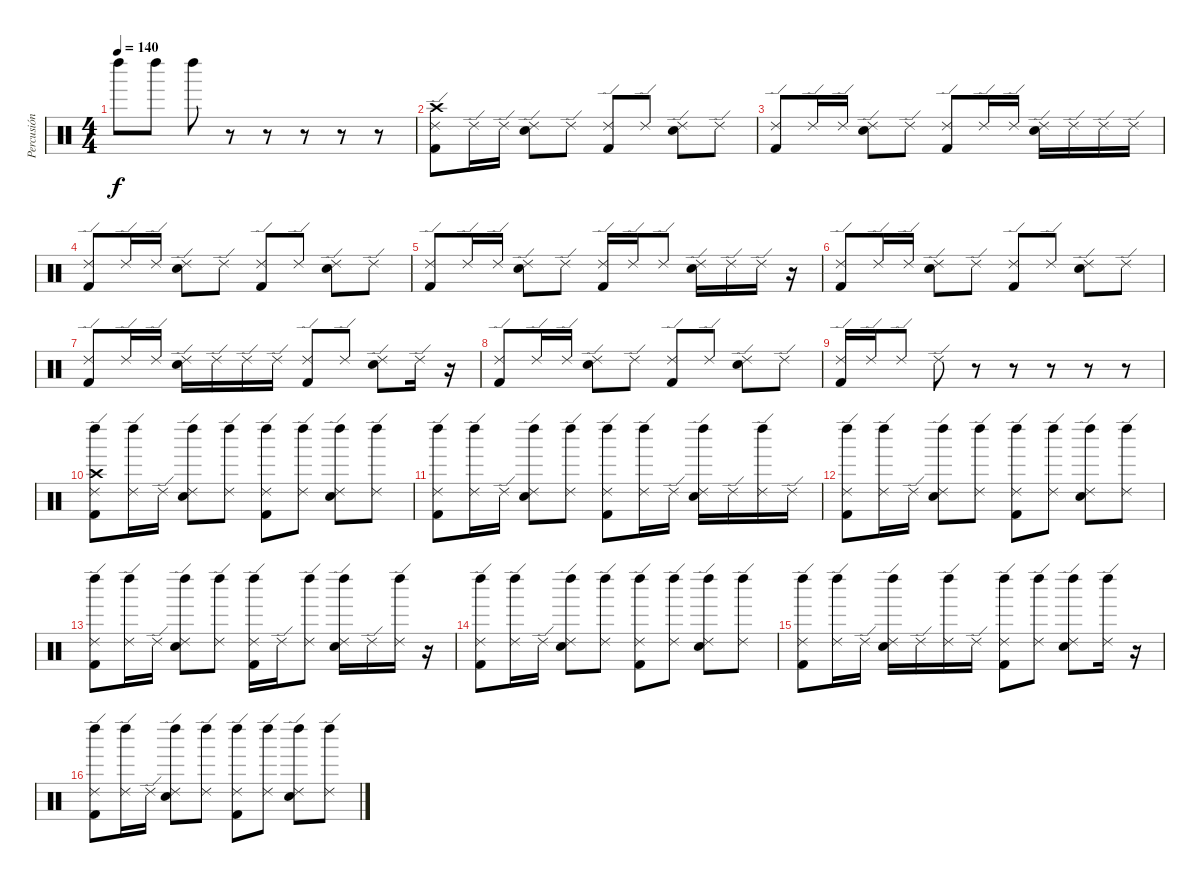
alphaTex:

\track ("Percusión" "Percusión") {instrument percussion}
\staff {score}
\articulation defaults
\ts (4 4)
\tempo 140
\clef neutral
\ks c "Left Maraca (hit)".8{dy f} "Left Maraca (hit)".8 "Left Maraca (hit)".8
r.8 r.8 r.8 r.8 r.8 |
("Ride (edge) 2" "Kick (hit) 2" "Crash high (hit)").8 "Ride (edge) 2".16 "Ride (edge) 2".16 ("Ride (edge) 2" "Snare (hit) 2").8 "Ride (edge) 2".8 ("Ride (edge) 2" "Kick (hit) 2").8 "Ride (edge) 2".8 ("Ride (edge) 2" "Snare (hit) 2").8 "Ride (edge) 2".8 |
("Ride (edge) 2" "Kick (hit) 2").8 "Ride (edge) 2".16 "Ride (edge) 2".16 ("Ride (edge) 2" "Snare (hit) 2").8 "Ride (edge) 2".8 ("Ride (edge) 2" "Kick (hit) 2").8 "Ride (edge) 2".16 "Ride (edge) 2".16 ("Ride (edge) 2" "Snare (hit) 2").16 "Ride (edge) 2".16 "Ride (edge) 2".16 "Ride (edge) 2".16 |
("Ride (edge) 2" "Kick (hit) 2").8 "Ride (edge) 2".16 "Ride (edge) 2".16 ("Ride (edge) 2" "Snare (hit) 2").8 "Ride (edge) 2".8 ("Ride (edge) 2" "Kick (hit) 2").8 "Ride (edge) 2".8 ("Ride (edge) 2" "Snare (hit) 2").8 "Ride (edge) 2".8 |
("Ride (edge) 2" "Kick (hit) 2").8 "Ride (edge) 2".16 "Ride (edge) 2".16 ("Ride (edge) 2" "Snare (hit) 2").8 "Ride (edge) 2".8 ("Ride (edge) 2" "Kick (hit) 2").16 "Ride (edge) 2".16 "Ride (edge) 2".8 ("Ride (edge) 2" "Snare (hit) 2").16 "Ride (edge) 2".16 "Ride (edge) 2".16 r.16 |
("Ride (edge) 2" "Kick (hit) 2").8 "Ride (edge) 2".16 "Ride (edge) 2".16 ("Ride (edge) 2" "Snare (hit) 2").8 "Ride (edge) 2".8 ("Ride (edge) 2" "Kick (hit) 2").8 "Ride (edge) 2".8 ("Ride (edge) 2" "Snare (hit) 2").8 "Ride (edge) 2".8 |
("Ride (edge) 2" "Kick (hit) 2").8 "Ride (edge) 2".16 "Ride (edge) 2".16 ("Ride (edge) 2" "Snare (hit) 2").16 "Ride (edge) 2".16 "Ride (edge) 2".16 "Ride (edge) 2".16 ("Ride (edge) 2" "Kick (hit) 2").8 "Ride (edge) 2".8 ("Ride (edge) 2" "Snare (hit) 2").8 "Ride (edge) 2".16 r.16 |
("Ride (edge) 2" "Kick (hit) 2").8 "Ride (edge) 2".16 "Ride (edge) 2".16 ("Ride (edge) 2" "Snare (hit) 2").8 "Ride (edge) 2".8 ("Ride (edge) 2" "Kick (hit) 2").8 "Ride (edge) 2".8 ("Ride (edge) 2" "Snare (hit) 2").8 "Ride (edge) 2".8 |
("Ride (edge) 2" "Kick (hit) 2").16 "Ride (edge) 2".16 "Ride (edge) 2".8 "Ride (edge) 2".8 r.8 r.8 r.8 r.8 r.8 |
("Ride (edge) 2" "Kick (hit) 2" "Crash high (hit)" "Left Maraca (hit)").8 ("Ride (edge) 2" "Left Maraca (hit)").16 "Ride (edge) 2".16 ("Ride (edge) 2" "Snare (hit) 2" "Left Maraca (hit)").8 ("Ride (edge) 2" "Left Maraca (hit)").8 ("Ride (edge) 2" "Kick (hit) 2" "Left Maraca (hit)").8 ("Ride (edge) 2" "Left Maraca (hit)").8 ("Ride (edge) 2" "Snare (hit) 2" "Left Maraca (hit)").8 ("Ride (edge) 2" "Left Maraca (hit)").8 |
("Ride (edge) 2" "Kick (hit) 2" "Left Maraca (hit)").8 ("Ride (edge) 2" "Left Maraca (hit)").16 "Ride (edge) 2".16 ("Ride (edge) 2" "Snare (hit) 2" "Left Maraca (hit)").8 ("Ride (edge) 2" "Left Maraca (hit)").8 ("Ride (edge) 2" "Kick (hit) 2" "Left Maraca (hit)").8 ("Ride (edge) 2" "Left Maraca (hit)").16 "Ride (edge) 2".16 ("Ride (edge) 2" "Snare (hit) 2" "Left Maraca (hit)").16 "Ride (edge) 2".16 ("Ride (edge) 2" "Left Maraca (hit)").16 "Ride (edge) 2".16 |
("Ride (edge) 2" "Kick (hit) 2" "Left Maraca (hit)").8 ("Ride (edge) 2" "Left Maraca (hit)").16 "Ride (edge) 2".16 ("Ride (edge) 2" "Snare (hit) 2" "Left Maraca (hit)").8 ("Ride (edge) 2" "Left Maraca (hit)").8 ("Ride (edge) 2" "Kick (hit) 2" "Left Maraca (hit)").8 ("Ride (edge) 2" "Left Maraca (hit)").8 ("Ride (edge) 2" "Snare (hit) 2" "Left Maraca (hit)").8 ("Ride (edge) 2" "Left Maraca (hit)").8 |
("Ride (edge) 2" "Kick (hit) 2" "Left Maraca (hit)").8 ("Ride (edge) 2" "Left Maraca (hit)").16 "Ride (edge) 2".16 ("Ride (edge) 2" "Snare (hit) 2" "Left Maraca (hit)").8 ("Ride (edge) 2" "Left Maraca (hit)").8 ("Ride (edge) 2" "Kick (hit) 2" "Left Maraca (hit)").16 "Ride (edge) 2".16 ("Ride (edge) 2" "Left Maraca (hit)").8 ("Ride (edge) 2" "Snare (hit) 2" "Left Maraca (hit)").16 "Ride (edge) 2".16 ("Ride (edge) 2" "Left Maraca (hit)").16 r.16 |
("Ride (edge) 2" "Kick (hit) 2" "Left Maraca (hit)").8 ("Ride (edge) 2" "Left Maraca (hit)").16 "Ride (edge) 2".16 ("Ride (edge) 2" "Snare (hit) 2" "Left Maraca (hit)").8 ("Ride (edge) 2" "Left Maraca (hit)").8 ("Ride (edge) 2" "Kick (hit) 2" "Left Maraca (hit)").8 ("Ride (edge) 2" "Left Maraca (hit)").8 ("Ride (edge) 2" "Snare (hit) 2" "Left Maraca (hit)").8 ("Ride (edge) 2" "Left Maraca (hit)").8 |
("Ride (edge) 2" "Kick (hit) 2" "Left Maraca (hit)").8 ("Ride (edge) 2" "Left Maraca (hit)").16 "Ride (edge) 2".16 ("Ride (edge) 2" "Snare (hit) 2" "Left Maraca (hit)").16 "Ride (edge) 2".16 ("Ride (edge) 2" "Left Maraca (hit)").16 "Ride (edge) 2".16 ("Ride (edge) 2" "Kick (hit) 2" "Left Maraca (hit)").8 ("Ride (edge) 2" "Left Maraca (hit)").8 ("Ride (edge) 2" "Snare (hit) 2" "Left Maraca (hit)").8 ("Ride (edge) 2" "Left Maraca (hit)").16 r.16 |
("Ride (edge) 2" "Kick (hit) 2" "Left Maraca (hit)").8 ("Ride (edge) 2" "Left Maraca (hit)").16 "Ride (edge) 2".16 ("Ride (edge) 2" "Snare (hit) 2" "Left Maraca (hit)").8 ("Ride (edge) 2" "Left Maraca (hit)").8 ("Ride (edge) 2" "Kick (hit) 2" "Left Maraca (hit)").8 ("Ride (edge) 2" "Left Maraca (hit)").8 ("Ride (edge) 2" "Snare (hit) 2" "Left Maraca (hit)").8 ("Ride (edge) 2" "Left Maraca (hit)").8
